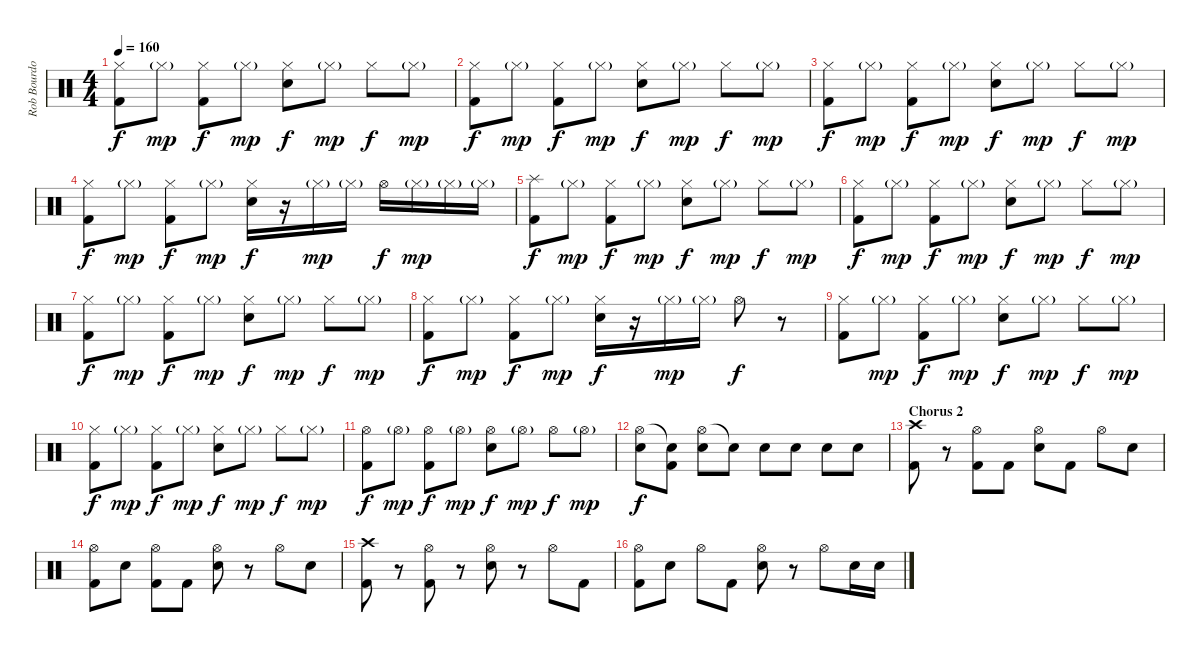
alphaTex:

\track ("Rob Bourdon (Drums)" "Rob Bourdo") {instrument percussion}
\staff {score}
\articulation defaults
\ts (4 4)
\tempo 160
\clef neutral
\ks c
("Hi-Hat (closed)" "Kick (hit) 2").8{dy f} "Hi-Hat (closed)"{g}.8{dy mp} ("Hi-Hat (closed)" "Kick (hit) 2").8{dy f} "Hi-Hat (closed)"{g}.8{dy mp} ("Hi-Hat (closed)" "Electric Snare (hit)").8{dy f} "Hi-Hat (closed)"{g}.8{dy mp} "Hi-Hat (closed)".8{dy f} "Hi-Hat (closed)"{g}.8{dy mp} |
("Hi-Hat (closed)" "Kick (hit) 2").8{dy f} "Hi-Hat (closed)"{g}.8{dy mp} ("Hi-Hat (closed)" "Kick (hit) 2").8{dy f} "Hi-Hat (closed)"{g}.8{dy mp} ("Hi-Hat (closed)" "Electric Snare (hit)").8{dy f} "Hi-Hat (closed)"{g}.8{dy mp} "Hi-Hat (closed)".8{dy f} "Hi-Hat (closed)"{g}.8{dy mp} |
("Hi-Hat (closed)" "Kick (hit) 2").8{dy f} "Hi-Hat (closed)"{g}.8{dy mp} ("Hi-Hat (closed)" "Kick (hit) 2").8{dy f} "Hi-Hat (closed)"{g}.8{dy mp} ("Hi-Hat (closed)" "Electric Snare (hit)").8{dy f} "Hi-Hat (closed)"{g}.8{dy mp} "Hi-Hat (closed)".8{dy f} "Hi-Hat (closed)"{g}.8{dy mp} |
("Hi-Hat (closed)" "Kick (hit) 2").8{dy f} "Hi-Hat (closed)"{g}.8{dy mp} ("Hi-Hat (closed)" "Kick (hit) 2").8{dy f} "Hi-Hat (closed)"{g}.8{dy mp} ("Hi-Hat (closed)" "Electric Snare (hit)").16{dy f} r.16 "Hi-Hat (closed)"{g}.16{dy mp} "Hi-Hat (closed)"{g}.16 "Hi-Hat (open)".16{dy f} "Hi-Hat (closed)"{g}.16{dy mp} "Hi-Hat (closed)"{g}.16 "Hi-Hat (closed)"{g}.16 |
("Splash (hit)" "Kick (hit) 2").8{dy f} "Hi-Hat (closed)"{g}.8{dy mp} ("Hi-Hat (closed)" "Kick (hit) 2").8{dy f} "Hi-Hat (closed)"{g}.8{dy mp} ("Hi-Hat (closed)" "Electric Snare (hit)").8{dy f} "Hi-Hat (closed)"{g}.8{dy mp} "Hi-Hat (closed)".8{dy f} "Hi-Hat (closed)"{g}.8{dy mp} |
("Hi-Hat (closed)" "Kick (hit) 2").8{dy f} "Hi-Hat (closed)"{g}.8{dy mp} ("Hi-Hat (closed)" "Kick (hit) 2").8{dy f} "Hi-Hat (closed)"{g}.8{dy mp} ("Hi-Hat (closed)" "Electric Snare (hit)").8{dy f} "Hi-Hat (closed)"{g}.8{dy mp} "Hi-Hat (closed)".8{dy f} "Hi-Hat (closed)"{g}.8{dy mp} |
("Hi-Hat (closed)" "Kick (hit) 2").8{dy f} "Hi-Hat (closed)"{g}.8{dy mp} ("Hi-Hat (closed)" "Kick (hit) 2").8{dy f} "Hi-Hat (closed)"{g}.8{dy mp} ("Hi-Hat (closed)" "Electric Snare (hit)").8{dy f} "Hi-Hat (closed)"{g}.8{dy mp} "Hi-Hat (closed)".8{dy f} "Hi-Hat (closed)"{g}.8{dy mp} |
("Hi-Hat (closed)" "Kick (hit) 2").8{dy f} "Hi-Hat (closed)"{g}.8{dy mp} ("Hi-Hat (closed)" "Kick (hit) 2").8{dy f} "Hi-Hat (closed)"{g}.8{dy mp} ("Hi-Hat (closed)" "Electric Snare (hit)").16{dy f} r.16 "Hi-Hat (closed)"{g}.16{dy mp} "Hi-Hat (closed)"{g}.16 "Hi-Hat (open)".8{dy f} r.8 |
("Hi-Hat (closed)" "Kick (hit) 2").8 "Hi-Hat (closed)"{g}.8{dy mp} ("Hi-Hat (closed)" "Kick (hit) 2").8{dy f} "Hi-Hat (closed)"{g}.8{dy mp} ("Hi-Hat (closed)" "Electric Snare (hit)").8{dy f} "Hi-Hat (closed)"{g}.8{dy mp} "Hi-Hat (closed)".8{dy f} "Hi-Hat (closed)"{g}.8{dy mp} |
("Hi-Hat (closed)" "Kick (hit) 2").8{dy f} "Hi-Hat (closed)"{g}.8{dy mp} ("Hi-Hat (closed)" "Kick (hit) 2").8{dy f} "Hi-Hat (closed)"{g}.8{dy mp} ("Hi-Hat (closed)" "Electric Snare (hit)").8{dy f} "Hi-Hat (closed)"{g}.8{dy mp} "Hi-Hat (closed)".8{dy f} "Hi-Hat (closed)"{g}.8{dy mp} |
("Hi-Hat (open)" "Kick (hit) 2").8{dy f} "Hi-Hat (open)"{g}.8{dy mp} ("Hi-Hat (open)" "Kick (hit) 2").8{dy f} "Hi-Hat (open)"{g}.8{dy mp} ("Hi-Hat (open)" "Electric Snare (hit)").8{dy f} "Hi-Hat (open)"{g}.8{dy mp} "Hi-Hat (open)".8{dy f} "Hi-Hat (open)"{g}.8{dy mp} |
("Hi-Hat (open)" "Electric Snare (hit)").8{dy f} ("Snare (hit)"{t} "Kick (hit) 2").8 ("Hi-Hat (open)" "Electric Snare (hit)").8 "Snare (hit)"{t}.8 "Electric Snare (hit)".8 "Electric Snare (hit)".8 "Electric Snare (hit)".8 "Electric Snare (hit)".8 |
\section ("" "Chorus 2")
("Crash high (hit)" "Kick (hit) 2").8 r.8 ("Hi-Hat (open)" "Kick (hit) 2").8 "Kick (hit) 2".8 ("Hi-Hat (open)" "Electric Snare (hit)").8 "Kick (hit) 2".8 "Hi-Hat (open)".8 "Electric Snare (hit)".8 |
("Hi-Hat (open)" "Kick (hit) 2").8 "Electric Snare (hit)".8 ("Hi-Hat (open)" "Kick (hit) 2").8 "Kick (hit) 2".8 ("Hi-Hat (open)" "Electric Snare (hit)").8 r.8 "Hi-Hat (open)".8 "Electric Snare (hit)".8 |
("Crash high (hit)" "Kick (hit) 2").8 r.8 ("Hi-Hat (open)" "Kick (hit) 2").8 r.8 ("Hi-Hat (open)" "Electric Snare (hit)").8 r.8 "Hi-Hat (open)".8 "Kick (hit) 2".8 |
("Hi-Hat (open)" "Kick (hit) 2").8 "Electric Snare (hit)".8 "Hi-Hat (open)".8 "Kick (hit) 2".8 ("Hi-Hat (open)" "Electric Snare (hit)").8 r.8 "Hi-Hat (open)".8 "Electric Snare (hit)".16 "Electric Snare (hit)".16
